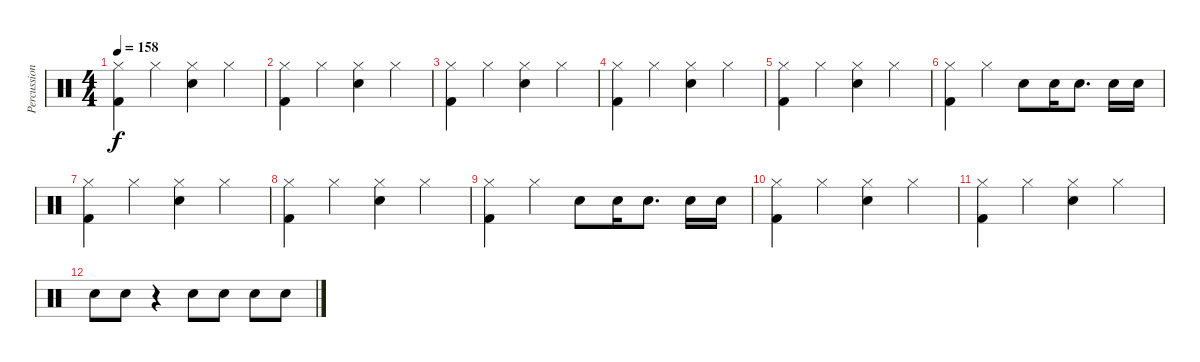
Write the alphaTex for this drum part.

\track ("Percussion" "Percussion") {instrument percussion}
\staff {score}
\articulation defaults
\ts (4 4)
\tempo 158
\clef neutral
\ks c
("Hi-Hat (closed)" "Kick (hit) 2").4{dy f} "Hi-Hat (closed)".4 ("Electric Snare (hit)" "Hi-Hat (closed)").4 "Hi-Hat (closed)".4 |
("Hi-Hat (closed)" "Kick (hit) 2").4 "Hi-Hat (closed)".4 ("Electric Snare (hit)" "Hi-Hat (closed)").4 "Hi-Hat (closed)".4 |
("Hi-Hat (closed)" "Kick (hit) 2").4 "Hi-Hat (closed)".4 ("Electric Snare (hit)" "Hi-Hat (closed)").4 "Hi-Hat (closed)".4 |
("Hi-Hat (closed)" "Kick (hit) 2").4 "Hi-Hat (closed)".4 ("Electric Snare (hit)" "Hi-Hat (closed)").4 "Hi-Hat (closed)".4 |
("Hi-Hat (closed)" "Kick (hit) 2").4 "Hi-Hat (closed)".4 ("Electric Snare (hit)" "Hi-Hat (closed)").4 "Hi-Hat (closed)".4 |
("Hi-Hat (closed)" "Kick (hit) 2").4 "Hi-Hat (closed)".4 "Electric Snare (hit)".8 "Electric Snare (hit)".16 "Electric Snare (hit)".8{d} "Electric Snare (hit)".16 "Electric Snare (hit)".16 |
("Hi-Hat (closed)" "Kick (hit) 2").4 "Hi-Hat (closed)".4 ("Electric Snare (hit)" "Hi-Hat (closed)").4 "Hi-Hat (closed)".4 |
("Hi-Hat (closed)" "Kick (hit) 2").4 "Hi-Hat (closed)".4 ("Electric Snare (hit)" "Hi-Hat (closed)").4 "Hi-Hat (closed)".4 |
("Hi-Hat (closed)" "Kick (hit) 2").4 "Hi-Hat (closed)".4 "Electric Snare (hit)".8 "Electric Snare (hit)".16 "Electric Snare (hit)".8{d} "Electric Snare (hit)".16 "Electric Snare (hit)".16 |
("Hi-Hat (closed)" "Kick (hit) 2").4 "Hi-Hat (closed)".4 ("Electric Snare (hit)" "Hi-Hat (closed)").4 "Hi-Hat (closed)".4 |
("Hi-Hat (closed)" "Kick (hit) 2").4 "Hi-Hat (closed)".4 ("Electric Snare (hit)" "Hi-Hat (closed)").4 "Hi-Hat (closed)".4 |
"Electric Snare (hit)".8 "Electric Snare (hit)".8 r.4 "Electric Snare (hit)".8 "Electric Snare (hit)".8 "Electric Snare (hit)".8 "Electric Snare (hit)".8
